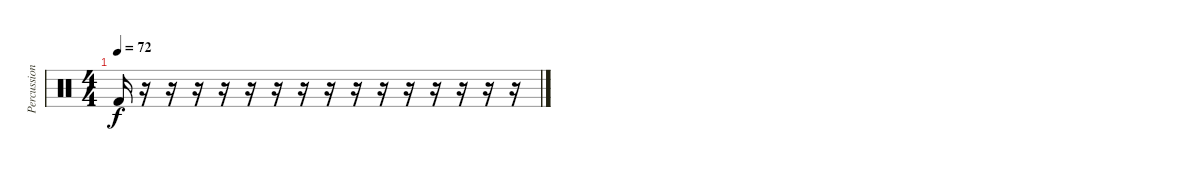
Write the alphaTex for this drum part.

\track ("Percussion" "Percussion") {instrument percussion}
\staff {score}
\articulation defaults
\ts (4 4)
\tempo 72
\clef neutral
\ks c "Kick (hit) 2".16{dy f}
r.16 r.16 r.16 r.16 r.16 r.16 r.16 r.16 r.16 r.16 r.16 r.16 r.16 r.16 r.16
